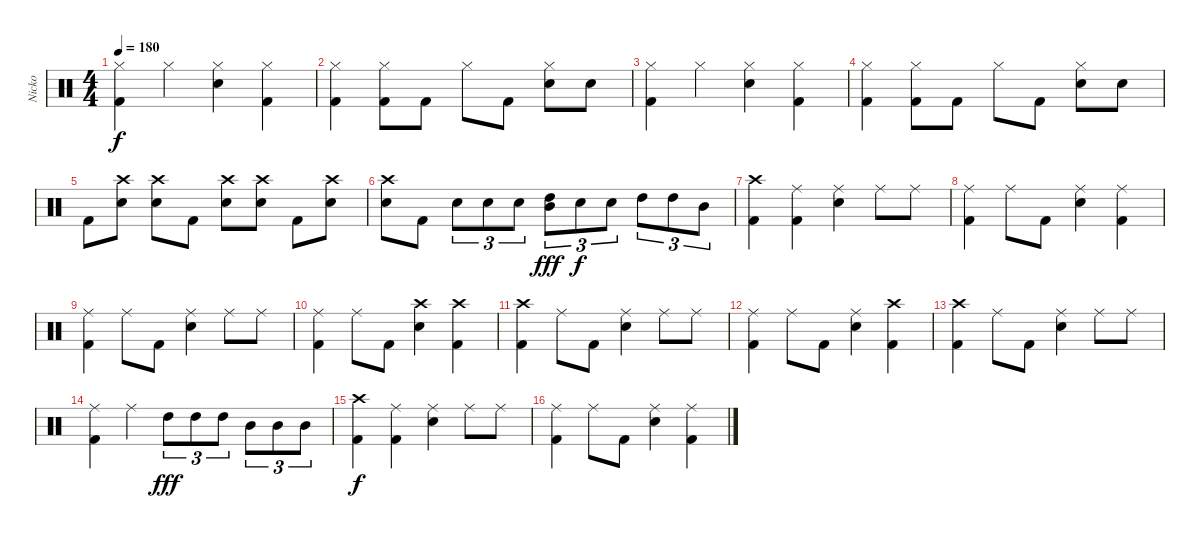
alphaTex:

\track ("Nicko" "Nicko") {instrument percussion}
\staff {score}
\articulation defaults
\ts (4 4)
\tempo 180
\clef neutral
\ks c
("Hi-Hat (closed)" "Kick (hit) 2").4{dy f} "Hi-Hat (closed)".4 ("Hi-Hat (closed)" "Snare (hit) 2").4 ("Hi-Hat (closed)" "Kick (hit) 2").4 |
("Hi-Hat (closed)" "Kick (hit) 2").4 ("Hi-Hat (closed)" "Kick (hit) 2").8 "Kick (hit) 2".8 "Hi-Hat (closed)".8 "Kick (hit) 2".8 ("Hi-Hat (closed)" "Snare (hit) 2").8 "Snare (hit) 2".8 |
("Hi-Hat (closed)" "Kick (hit) 2").4 "Hi-Hat (closed)".4 ("Hi-Hat (closed)" "Snare (hit) 2").4 ("Hi-Hat (closed)" "Kick (hit) 2").4 |
("Hi-Hat (closed)" "Kick (hit) 2").4 ("Hi-Hat (closed)" "Kick (hit) 2").8 "Kick (hit) 2".8 "Hi-Hat (closed)".8 "Kick (hit) 2".8 ("Hi-Hat (closed)" "Snare (hit) 2").8 "Snare (hit) 2".8 |
"Kick (hit) 2".8 ("Crash high (hit)" "Snare (hit) 2").8 ("Crash high (hit)" "Snare (hit) 2").8 "Kick (hit) 2".8 ("Crash high (hit)" "Snare (hit) 2").8 ("Crash high (hit)" "Snare (hit) 2").8 "Kick (hit) 2".8 ("Crash high (hit)" "Snare (hit) 2").8 |
("Crash high (hit)" "Snare (hit) 2").8 "Kick (hit) 2".8 "Snare (hit) 2".8{tu (3 2)} "Snare (hit) 2".8{tu (3 2)} "Snare (hit) 2".8{tu (3 2)} ("High Tom (hit)" "Mid Tom (hit)").8{tu (3 2) dy fff} "Snare (hit) 2".8{tu (3 2) dy f} "Snare (hit) 2".8{tu (3 2)} "High Tom (hit)".8{tu (3 2)} "High Tom (hit)".8{tu (3 2)} "Mid Tom (hit)".8{tu (3 2)} |
("Crash high (hit)" "Kick (hit) 2").4 ("Ride (middle)" "Kick (hit) 2").4 ("Ride (middle)" "Snare (hit) 2").4 "Ride (middle)".8 "Ride (middle)".8 |
("Ride (middle)" "Kick (hit) 2").4 "Ride (middle)".8 "Kick (hit) 2".8 ("Ride (middle)" "Snare (hit) 2").4 ("Ride (middle)" "Kick (hit) 2").4 |
("Ride (middle)" "Kick (hit) 2").4 "Ride (middle)".8 "Kick (hit) 2".8 ("Ride (middle)" "Snare (hit) 2").4 "Ride (middle)".8 "Ride (middle)".8 |
("Ride (middle)" "Kick (hit) 2").4 "Ride (middle)".8 "Kick (hit) 2".8 ("Crash high (hit)" "Snare (hit) 2").4 ("Crash high (hit)" "Kick (hit) 2").4 |
("Crash high (hit)" "Kick (hit) 2").4 "Ride (middle)".8 "Kick (hit) 2".8 ("Ride (middle)" "Snare (hit) 2").4 "Ride (middle)".8 "Ride (middle)".8 |
("Ride (middle)" "Kick (hit) 2").4 "Ride (middle)".8 "Kick (hit) 2".8 ("Ride (middle)" "Snare (hit) 2").4 ("Crash high (hit)" "Kick (hit) 2").4 |
("Crash high (hit)" "Kick (hit) 2").4 "Ride (middle)".8 "Kick (hit) 2".8 ("Ride (middle)" "Snare (hit) 2").4 "Ride (middle)".8 "Ride (middle)".8 |
("Ride (middle)" "Kick (hit) 2").4 "Ride (middle)".4 "High Tom (hit)".8{tu (3 2) dy fff} "High Tom (hit)".8{tu (3 2)} "High Tom (hit)".8{tu (3 2)} "Mid Tom (hit)".8{tu (3 2)} "Mid Tom (hit)".8{tu (3 2)} "Mid Tom (hit)".8{tu (3 2)} |
("Crash high (hit)" "Kick (hit) 2").4{dy f} ("Ride (middle)" "Kick (hit) 2").4 ("Ride (middle)" "Snare (hit) 2").4 "Ride (middle)".8 "Ride (middle)".8 |
("Ride (middle)" "Kick (hit) 2").4 "Ride (middle)".8 "Kick (hit) 2".8 ("Ride (middle)" "Snare (hit) 2").4 ("Ride (middle)" "Kick (hit) 2").4
